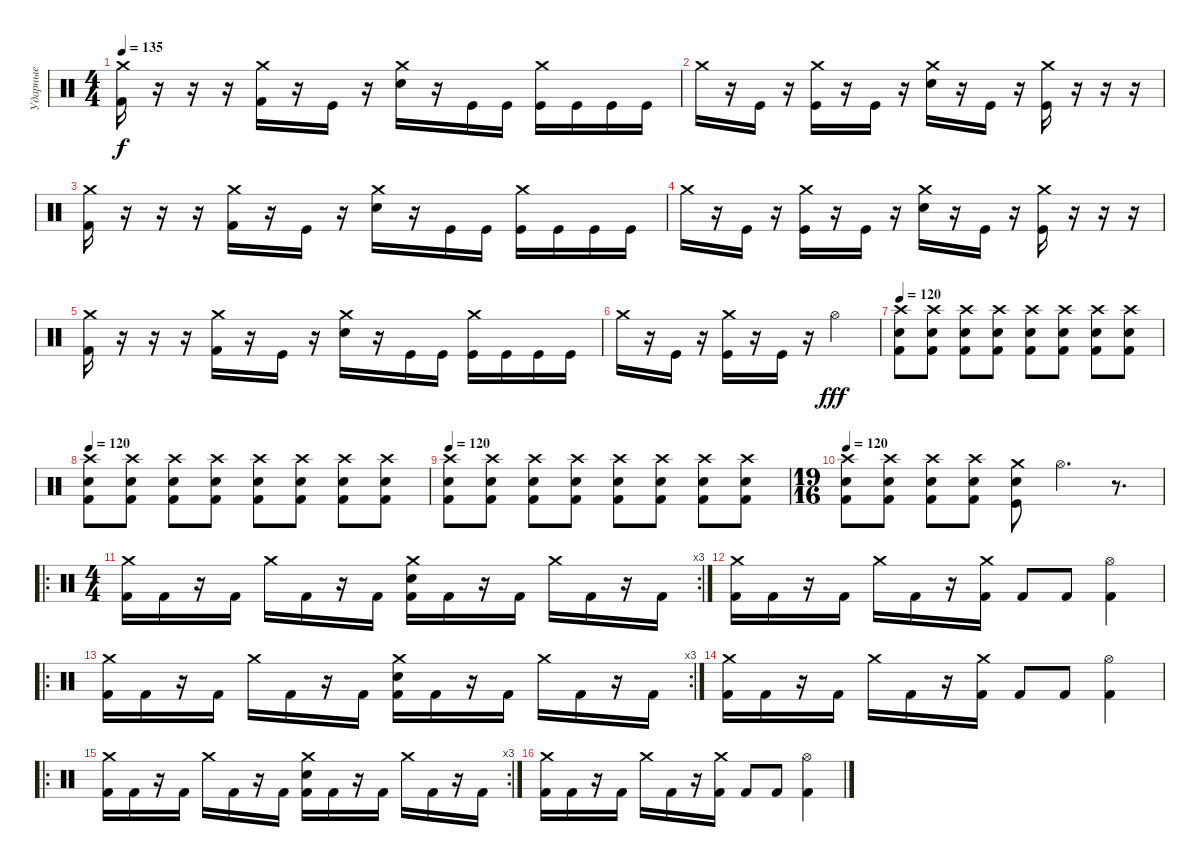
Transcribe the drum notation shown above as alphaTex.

\track ("Ударные" "Ударные") {instrument percussion}
\staff {score}
\articulation defaults
\ts (4 4)
\tempo 135
\clef neutral
\ks c
("Crash medium (hit)" "Kick (hit) 2").16{dy f} r.16 r.16 r.16 ("Crash medium (hit)" "Kick (hit) 2").16 r.16 "Kick (hit)".16 r.16 ("Crash medium (hit)" "Snare (hit) 2").16 r.16 "Kick (hit)".16 "Kick (hit)".16 ("Crash medium (hit)" "Kick (hit)").16 "Kick (hit)".16 "Kick (hit)".16 "Kick (hit)".16 |
"Crash medium (hit)".16 r.16 "Kick (hit)".16 r.16 ("Kick (hit)" "Crash medium (hit)").16 r.16 "Kick (hit)".16 r.16 ("Snare (hit) 2" "Crash medium (hit)").16 r.16 "Kick (hit)".16 r.16 ("Kick (hit)" "Crash medium (hit)").16 r.16 r.16 r.16 |
("Crash medium (hit)" "Kick (hit) 2").16 r.16 r.16 r.16 ("Crash medium (hit)" "Kick (hit) 2").16 r.16 "Kick (hit)".16 r.16 ("Crash medium (hit)" "Snare (hit) 2").16 r.16 "Kick (hit)".16 "Kick (hit)".16 ("Crash medium (hit)" "Kick (hit)").16 "Kick (hit)".16 "Kick (hit)".16 "Kick (hit)".16 |
"Crash medium (hit)".16 r.16 "Kick (hit)".16 r.16 ("Kick (hit)" "Crash medium (hit)").16 r.16 "Kick (hit)".16 r.16 ("Snare (hit) 2" "Crash medium (hit)").16 r.16 "Kick (hit)".16 r.16 ("Kick (hit)" "Crash medium (hit)").16 r.16 r.16 r.16 |
("Crash medium (hit)" "Kick (hit) 2").16 r.16 r.16 r.16 ("Crash medium (hit)" "Kick (hit) 2").16 r.16 "Kick (hit)".16 r.16 ("Crash medium (hit)" "Snare (hit) 2").16 r.16 "Kick (hit)".16 "Kick (hit)".16 ("Crash medium (hit)" "Kick (hit)").16 "Kick (hit)".16 "Kick (hit)".16 "Kick (hit)".16 |
"Crash medium (hit)".16 r.16 "Kick (hit)".16 r.16 ("Kick (hit)" "Crash medium (hit)").16 r.16 "Kick (hit)".16 r.16 "Hi-Hat (open)".2{dy fff} |
\tempo 120
("Snare (hit) 2" "Crash high (hit)" "Kick (hit) 2").8 ("Snare (hit) 2" "Crash high (hit)" "Kick (hit) 2").8 ("Snare (hit) 2" "Crash high (hit)" "Kick (hit) 2").8 ("Snare (hit) 2" "Crash high (hit)" "Kick (hit) 2").8 ("Snare (hit) 2" "Crash high (hit)" "Kick (hit) 2").8 ("Snare (hit) 2" "Crash high (hit)" "Kick (hit) 2").8 ("Snare (hit) 2" "Crash high (hit)" "Kick (hit) 2").8 ("Snare (hit) 2" "Crash high (hit)" "Kick (hit) 2").8 |
\tempo 120
("Snare (hit) 2" "Crash high (hit)" "Kick (hit) 2").8 ("Snare (hit) 2" "Crash high (hit)" "Kick (hit) 2").8 ("Snare (hit) 2" "Crash high (hit)" "Kick (hit) 2").8 ("Snare (hit) 2" "Crash high (hit)" "Kick (hit) 2").8 ("Snare (hit) 2" "Crash high (hit)" "Kick (hit) 2").8 ("Snare (hit) 2" "Crash high (hit)" "Kick (hit) 2").8 ("Snare (hit) 2" "Crash high (hit)" "Kick (hit) 2").8 ("Snare (hit) 2" "Crash high (hit)" "Kick (hit) 2").8 |
\tempo 120
("Snare (hit) 2" "Crash high (hit)" "Kick (hit) 2").8 ("Snare (hit) 2" "Crash high (hit)" "Kick (hit) 2").8 ("Snare (hit) 2" "Crash high (hit)" "Kick (hit) 2").8 ("Snare (hit) 2" "Crash high (hit)" "Kick (hit) 2").8 ("Snare (hit) 2" "Crash high (hit)" "Kick (hit) 2").8 ("Snare (hit) 2" "Crash high (hit)" "Kick (hit) 2").8 ("Snare (hit) 2" "Crash high (hit)" "Kick (hit) 2").8 ("Snare (hit) 2" "Crash high (hit)" "Kick (hit) 2").8 |
\ts (19 16)
\tempo 120
("Snare (hit) 2" "Crash high (hit)" "Kick (hit) 2").8 ("Snare (hit) 2" "Crash high (hit)" "Kick (hit) 2").8 ("Snare (hit) 2" "Crash high (hit)" "Kick (hit) 2").8 ("Snare (hit) 2" "Crash high (hit)" "Kick (hit) 2").8 ("Crash medium (hit)" "Kick (hit)" "Snare (hit) 2").8 "Hi-Hat (open)".4{d} r.8{d} |
\ro
\rc 3
\ts (4 4)
("Kick (hit) 2" "Crash medium (hit)").16 "Kick (hit) 2".16 r.16 "Kick (hit) 2".16 "Crash medium (hit)".16 "Kick (hit) 2".16 r.16 "Kick (hit) 2".16 ("Kick (hit) 2" "Crash medium (hit)" "Snare (hit) 2").16 "Kick (hit) 2".16 r.16 "Kick (hit) 2".16 "Crash medium (hit)".16 "Kick (hit) 2".16 r.16 "Kick (hit) 2".16 |
("Kick (hit) 2" "Crash medium (hit)").16 "Kick (hit) 2".16 r.16 "Kick (hit) 2".16 "Crash medium (hit)".16 "Kick (hit) 2".16 r.16 ("Kick (hit) 2" "Crash medium (hit)").16 "Kick (hit) 2".8 "Kick (hit) 2".8 ("Kick (hit) 2" "Hi-Hat (open)").4 |
\ro
\rc 3
("Kick (hit) 2" "Crash medium (hit)").16 "Kick (hit) 2".16 r.16 "Kick (hit) 2".16 "Crash medium (hit)".16 "Kick (hit) 2".16 r.16 "Kick (hit) 2".16 ("Kick (hit) 2" "Crash medium (hit)" "Snare (hit) 2").16 "Kick (hit) 2".16 r.16 "Kick (hit) 2".16 "Crash medium (hit)".16 "Kick (hit) 2".16 r.16 "Kick (hit) 2".16 |
("Kick (hit) 2" "Crash medium (hit)").16 "Kick (hit) 2".16 r.16 "Kick (hit) 2".16 "Crash medium (hit)".16 "Kick (hit) 2".16 r.16 ("Kick (hit) 2" "Crash medium (hit)").16 "Kick (hit) 2".8 "Kick (hit) 2".8 ("Kick (hit) 2" "Hi-Hat (open)").4 |
\ro
\rc 3
("Kick (hit) 2" "Crash medium (hit)").16 "Kick (hit) 2".16 r.16 "Kick (hit) 2".16 "Crash medium (hit)".16 "Kick (hit) 2".16 r.16 "Kick (hit) 2".16 ("Kick (hit) 2" "Crash medium (hit)" "Snare (hit) 2").16 "Kick (hit) 2".16 r.16 "Kick (hit) 2".16 "Crash medium (hit)".16 "Kick (hit) 2".16 r.16 "Kick (hit) 2".16 |
("Kick (hit) 2" "Crash medium (hit)").16 "Kick (hit) 2".16 r.16 "Kick (hit) 2".16 "Crash medium (hit)".16 "Kick (hit) 2".16 r.16 ("Kick (hit) 2" "Crash medium (hit)").16 "Kick (hit) 2".8 "Kick (hit) 2".8 ("Kick (hit) 2" "Hi-Hat (open)").4
